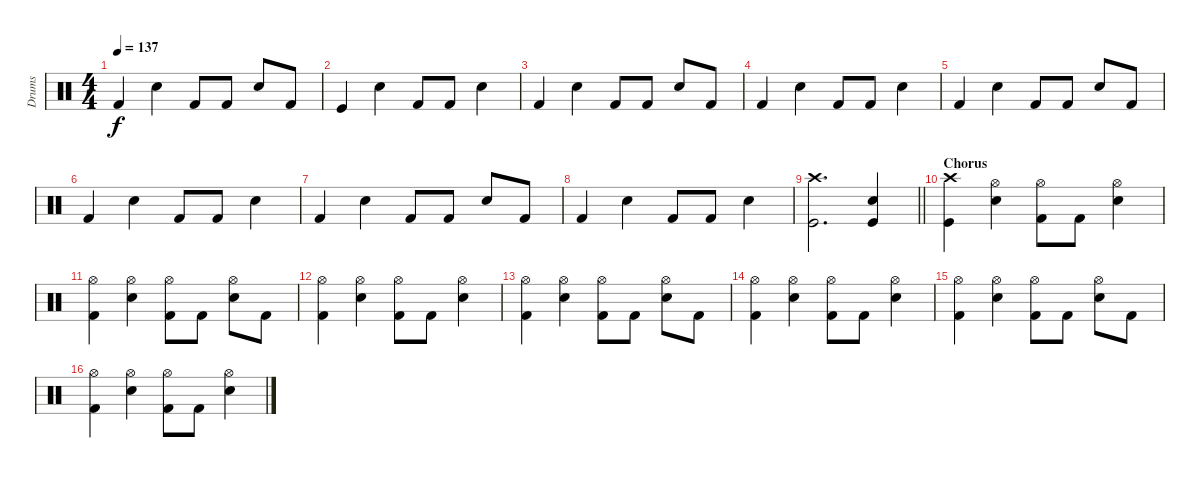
\track ("Drums" "Drums") {instrument percussion}
\staff {score}
\articulation defaults
\ts (4 4)
\tempo 137
\clef neutral
\ks c "Kick (hit) 2".4{dy f} "Electric Snare (hit)".4 "Kick (hit) 2".8 "Kick (hit) 2".8 "Electric Snare (hit)".8 "Kick (hit) 2".8
|
"Kick (hit)".4 "Electric Snare (hit)".4 "Kick (hit) 2".8 "Kick (hit) 2".8 "Electric Snare (hit)".4 |
"Kick (hit) 2".4 "Electric Snare (hit)".4 "Kick (hit) 2".8 "Kick (hit) 2".8 "Electric Snare (hit)".8 "Kick (hit) 2".8 |
"Kick (hit) 2".4 "Electric Snare (hit)".4 "Kick (hit) 2".8 "Kick (hit) 2".8 "Electric Snare (hit)".4 |
"Kick (hit) 2".4 "Electric Snare (hit)".4 "Kick (hit) 2".8 "Kick (hit) 2".8 "Electric Snare (hit)".8 "Kick (hit) 2".8 |
"Kick (hit) 2".4 "Electric Snare (hit)".4 "Kick (hit) 2".8 "Kick (hit) 2".8 "Electric Snare (hit)".4 |
"Kick (hit) 2".4 "Electric Snare (hit)".4 "Kick (hit) 2".8 "Kick (hit) 2".8 "Electric Snare (hit)".8 "Kick (hit) 2".8 |
"Kick (hit) 2".4 "Electric Snare (hit)".4 "Kick (hit) 2".8 "Kick (hit) 2".8 "Electric Snare (hit)".4 |
\barLineRight lightlight
("Crash high (hit)" "Kick (hit)").2{d} ("Electric Snare (hit)" "Kick (hit)").4 |
\section ("" "Chorus ")
("Crash high (hit)" "Kick (hit)").4 ("Hi-Hat (open)" "Electric Snare (hit)").4 ("Hi-Hat (open)" "Kick (hit) 2").8 "Kick (hit) 2".8 ("Hi-Hat (open)" "Electric Snare (hit)").4 |
("Hi-Hat (open)" "Kick (hit) 2").4 ("Hi-Hat (open)" "Electric Snare (hit)").4 ("Hi-Hat (open)" "Kick (hit) 2").8 "Kick (hit) 2".8 ("Hi-Hat (open)" "Electric Snare (hit)").8 "Kick (hit) 2".8 |
("Hi-Hat (open)" "Kick (hit) 2").4 ("Hi-Hat (open)" "Electric Snare (hit)").4 ("Hi-Hat (open)" "Kick (hit) 2").8 "Kick (hit) 2".8 ("Hi-Hat (open)" "Electric Snare (hit)").4 |
("Hi-Hat (open)" "Kick (hit) 2").4 ("Hi-Hat (open)" "Electric Snare (hit)").4 ("Hi-Hat (open)" "Kick (hit) 2").8 "Kick (hit) 2".8 ("Hi-Hat (open)" "Electric Snare (hit)").8 "Kick (hit) 2".8 |
("Hi-Hat (open)" "Kick (hit) 2").4 ("Hi-Hat (open)" "Electric Snare (hit)").4 ("Hi-Hat (open)" "Kick (hit) 2").8 "Kick (hit) 2".8 ("Hi-Hat (open)" "Electric Snare (hit)").4 |
("Hi-Hat (open)" "Kick (hit) 2").4 ("Hi-Hat (open)" "Electric Snare (hit)").4 ("Hi-Hat (open)" "Kick (hit) 2").8 "Kick (hit) 2".8 ("Hi-Hat (open)" "Electric Snare (hit)").8 "Kick (hit) 2".8 |
("Hi-Hat (open)" "Kick (hit) 2").4 ("Hi-Hat (open)" "Electric Snare (hit)").4 ("Hi-Hat (open)" "Kick (hit) 2").8 "Kick (hit) 2".8 ("Hi-Hat (open)" "Electric Snare (hit)").4
